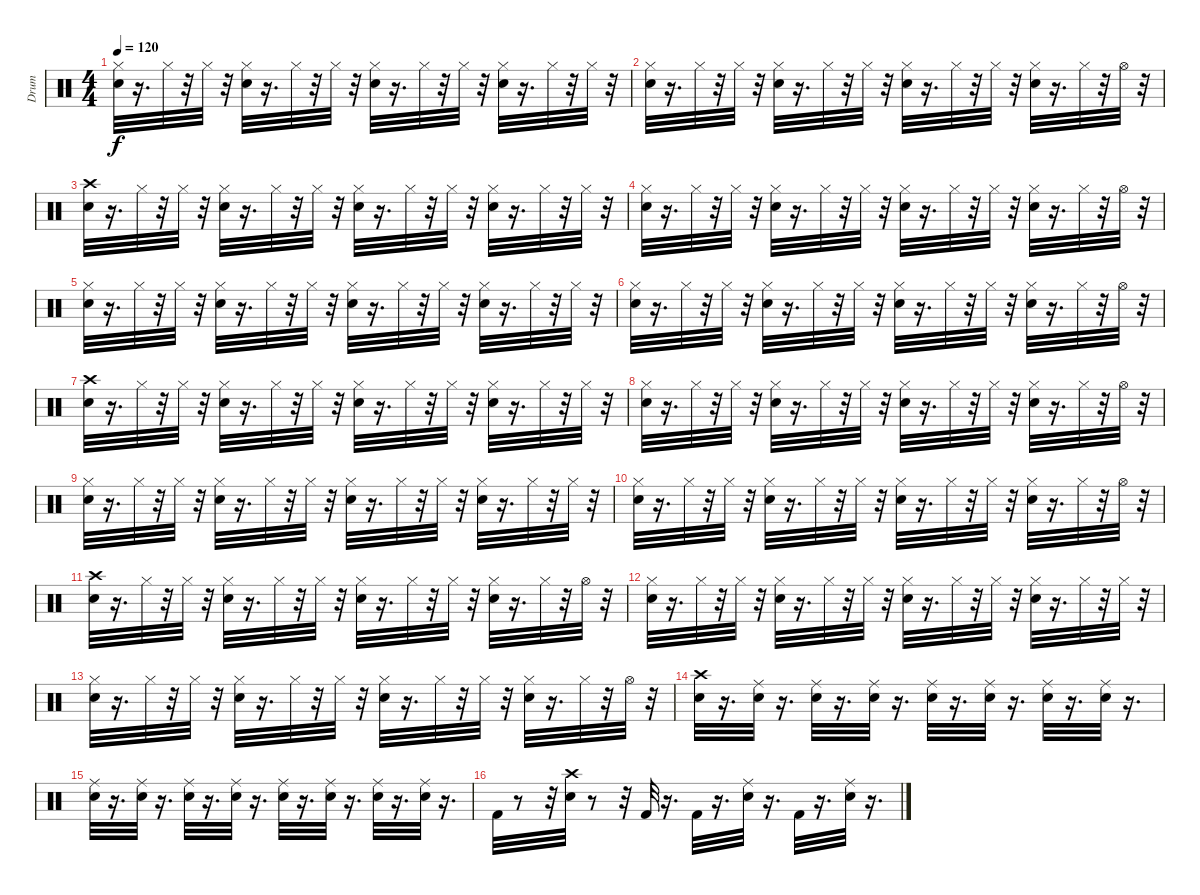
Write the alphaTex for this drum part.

\track ("Drum" "Drum") {instrument percussion}
\staff {score}
\articulation defaults
\ts (4 4)
\tempo 120
\clef neutral
\ks c
("Hi-Hat (closed)" "Snare (hit) 2").32{dy f} r.16{d} "Hi-Hat (closed)".32 r.32 "Hi-Hat (closed)".32 r.32 ("Hi-Hat (closed)" "Snare (hit) 2").32 r.16{d} "Hi-Hat (closed)".32 r.32 "Hi-Hat (closed)".32 r.32 ("Hi-Hat (closed)" "Snare (hit) 2").32 r.16{d} "Hi-Hat (closed)".32 r.32 "Hi-Hat (closed)".32 r.32 ("Hi-Hat (closed)" "Snare (hit) 2").32 r.16{d} "Hi-Hat (closed)".32 r.32 "Hi-Hat (closed)".32 r.32 |
("Hi-Hat (closed)" "Snare (hit) 2").32 r.16{d} "Hi-Hat (closed)".32 r.32 "Hi-Hat (closed)".32 r.32 ("Hi-Hat (closed)" "Snare (hit) 2").32 r.16{d} "Hi-Hat (closed)".32 r.32 "Hi-Hat (closed)".32 r.32 ("Hi-Hat (closed)" "Snare (hit) 2").32 r.16{d} "Hi-Hat (closed)".32 r.32 "Hi-Hat (closed)".32 r.32 ("Hi-Hat (closed)" "Snare (hit) 2").32 r.16{d} "Hi-Hat (closed)".32 r.32 "Hi-Hat (open)".32 r.32 |
("Crash high (hit)" "Snare (hit) 2").32 r.16{d} "Hi-Hat (closed)".32 r.32 "Hi-Hat (closed)".32 r.32 ("Hi-Hat (closed)" "Snare (hit) 2").32 r.16{d} "Hi-Hat (closed)".32 r.32 "Hi-Hat (closed)".32 r.32 ("Hi-Hat (closed)" "Snare (hit) 2").32 r.16{d} "Hi-Hat (closed)".32 r.32 "Hi-Hat (closed)".32 r.32 ("Hi-Hat (closed)" "Snare (hit) 2").32 r.16{d} "Hi-Hat (closed)".32 r.32 "Hi-Hat (closed)".32 r.32 |
("Hi-Hat (closed)" "Snare (hit) 2").32 r.16{d} "Hi-Hat (closed)".32 r.32 "Hi-Hat (closed)".32 r.32 ("Hi-Hat (closed)" "Snare (hit) 2").32 r.16{d} "Hi-Hat (closed)".32 r.32 "Hi-Hat (closed)".32 r.32 ("Hi-Hat (closed)" "Snare (hit) 2").32 r.16{d} "Hi-Hat (closed)".32 r.32 "Hi-Hat (closed)".32 r.32 ("Hi-Hat (closed)" "Snare (hit) 2").32 r.16{d} "Hi-Hat (closed)".32 r.32 "Hi-Hat (open)".32 r.32 |
("Hi-Hat (closed)" "Snare (hit) 2").32 r.16{d} "Hi-Hat (closed)".32 r.32 "Hi-Hat (closed)".32 r.32 ("Hi-Hat (closed)" "Snare (hit) 2").32 r.16{d} "Hi-Hat (closed)".32 r.32 "Hi-Hat (closed)".32 r.32 ("Hi-Hat (closed)" "Snare (hit) 2").32 r.16{d} "Hi-Hat (closed)".32 r.32 "Hi-Hat (closed)".32 r.32 ("Hi-Hat (closed)" "Snare (hit) 2").32 r.16{d} "Hi-Hat (closed)".32 r.32 "Hi-Hat (closed)".32 r.32 |
("Hi-Hat (closed)" "Snare (hit) 2").32 r.16{d} "Hi-Hat (closed)".32 r.32 "Hi-Hat (closed)".32 r.32 ("Hi-Hat (closed)" "Snare (hit) 2").32 r.16{d} "Hi-Hat (closed)".32 r.32 "Hi-Hat (closed)".32 r.32 ("Hi-Hat (closed)" "Snare (hit) 2").32 r.16{d} "Hi-Hat (closed)".32 r.32 "Hi-Hat (closed)".32 r.32 ("Hi-Hat (closed)" "Snare (hit) 2").32 r.16{d} "Hi-Hat (closed)".32 r.32 "Hi-Hat (open)".32 r.32 |
("Crash high (hit)" "Snare (hit) 2").32 r.16{d} "Hi-Hat (closed)".32 r.32 "Hi-Hat (closed)".32 r.32 ("Hi-Hat (closed)" "Snare (hit) 2").32 r.16{d} "Hi-Hat (closed)".32 r.32 "Hi-Hat (closed)".32 r.32 ("Hi-Hat (closed)" "Snare (hit) 2").32 r.16{d} "Hi-Hat (closed)".32 r.32 "Hi-Hat (closed)".32 r.32 ("Hi-Hat (closed)" "Snare (hit) 2").32 r.16{d} "Hi-Hat (closed)".32 r.32 "Hi-Hat (closed)".32 r.32 |
("Hi-Hat (closed)" "Snare (hit) 2").32 r.16{d} "Hi-Hat (closed)".32 r.32 "Hi-Hat (closed)".32 r.32 ("Hi-Hat (closed)" "Snare (hit) 2").32 r.16{d} "Hi-Hat (closed)".32 r.32 "Hi-Hat (closed)".32 r.32 ("Hi-Hat (closed)" "Snare (hit) 2").32 r.16{d} "Hi-Hat (closed)".32 r.32 "Hi-Hat (closed)".32 r.32 ("Hi-Hat (closed)" "Snare (hit) 2").32 r.16{d} "Hi-Hat (closed)".32 r.32 "Hi-Hat (open)".32 r.32 |
("Hi-Hat (closed)" "Snare (hit) 2").32 r.16{d} "Hi-Hat (closed)".32 r.32 "Hi-Hat (closed)".32 r.32 ("Hi-Hat (closed)" "Snare (hit) 2").32 r.16{d} "Hi-Hat (closed)".32 r.32 "Hi-Hat (closed)".32 r.32 ("Hi-Hat (closed)" "Snare (hit) 2").32 r.16{d} "Hi-Hat (closed)".32 r.32 "Hi-Hat (closed)".32 r.32 ("Hi-Hat (closed)" "Snare (hit) 2").32 r.16{d} "Hi-Hat (closed)".32 r.32 "Hi-Hat (closed)".32 r.32 |
("Hi-Hat (closed)" "Snare (hit) 2").32 r.16{d} "Hi-Hat (closed)".32 r.32 "Hi-Hat (closed)".32 r.32 ("Hi-Hat (closed)" "Snare (hit) 2").32 r.16{d} "Hi-Hat (closed)".32 r.32 "Hi-Hat (closed)".32 r.32 ("Hi-Hat (closed)" "Snare (hit) 2").32 r.16{d} "Hi-Hat (closed)".32 r.32 "Hi-Hat (closed)".32 r.32 ("Hi-Hat (closed)" "Snare (hit) 2").32 r.16{d} "Hi-Hat (closed)".32 r.32 "Hi-Hat (open)".32 r.32 |
("Crash high (hit)" "Snare (hit) 2").32 r.16{d} "Hi-Hat (closed)".32 r.32 "Hi-Hat (closed)".32 r.32 ("Hi-Hat (closed)" "Snare (hit) 2").32 r.16{d} "Hi-Hat (closed)".32 r.32 "Hi-Hat (closed)".32 r.32 ("Hi-Hat (closed)" "Snare (hit) 2").32 r.16{d} "Hi-Hat (closed)".32 r.32 "Hi-Hat (closed)".32 r.32 ("Hi-Hat (closed)" "Snare (hit) 2").32 r.16{d} "Hi-Hat (closed)".32 r.32 "Hi-Hat (open)".32 r.32 |
("Hi-Hat (closed)" "Snare (hit) 2").32 r.16{d} "Hi-Hat (closed)".32 r.32 "Hi-Hat (closed)".32 r.32 ("Hi-Hat (closed)" "Snare (hit) 2").32 r.16{d} "Hi-Hat (closed)".32 r.32 "Hi-Hat (closed)".32 r.32 ("Hi-Hat (closed)" "Snare (hit) 2").32 r.16{d} "Hi-Hat (closed)".32 r.32 "Hi-Hat (closed)".32 r.32 ("Hi-Hat (closed)" "Snare (hit) 2").32 r.16{d} "Hi-Hat (closed)".32 r.32 "Hi-Hat (closed)".32 r.32 |
("Hi-Hat (closed)" "Snare (hit) 2").32 r.16{d} "Hi-Hat (closed)".32 r.32 "Hi-Hat (closed)".32 r.32 ("Hi-Hat (closed)" "Snare (hit) 2").32 r.16{d} "Hi-Hat (closed)".32 r.32 "Hi-Hat (closed)".32 r.32 ("Hi-Hat (closed)" "Snare (hit) 2").32 r.16{d} "Hi-Hat (closed)".32 r.32 "Hi-Hat (closed)".32 r.32 ("Hi-Hat (closed)" "Snare (hit) 2").32 r.16{d} "Hi-Hat (closed)".32 r.32 "Hi-Hat (open)".32 r.32 |
("Crash high (hit)" "Snare (hit) 2").32 r.16{d} ("Ride (middle)" "Snare (hit) 2").32 r.16{d} ("Ride (middle)" "Snare (hit) 2").32 r.16{d} ("Ride (middle)" "Snare (hit) 2").32 r.16{d} ("Ride (middle)" "Snare (hit) 2").32 r.16{d} ("Ride (middle)" "Snare (hit) 2").32 r.16{d} ("Ride (middle)" "Snare (hit) 2").32 r.16{d} ("Ride (middle)" "Snare (hit) 2").32 r.16{d} |
("Ride (middle)" "Snare (hit) 2").32 r.16{d} ("Ride (middle)" "Snare (hit) 2").32 r.16{d} ("Ride (middle)" "Snare (hit) 2").32 r.16{d} ("Ride (middle)" "Snare (hit) 2").32 r.16{d} ("Ride (middle)" "Snare (hit) 2").32 r.16{d} ("Ride (middle)" "Snare (hit) 2").32 r.16{d} ("Ride (middle)" "Snare (hit) 2").32 r.16{d} ("Ride (middle)" "Snare (hit) 2").32 r.16{d} |
"Kick (hit) 2".32 r.8 r.32 ("Snare (hit) 2" "Crash high (hit)").32 r.8 r.32 "Kick (hit) 2".32 r.16{d} "Kick (hit) 2".32 r.16{d} ("Snare (hit) 2" "Ride (middle)").32 r.16{d} "Kick (hit) 2".32 r.16{d} ("Snare (hit) 2" "Ride (middle)").32 r.16{d}
